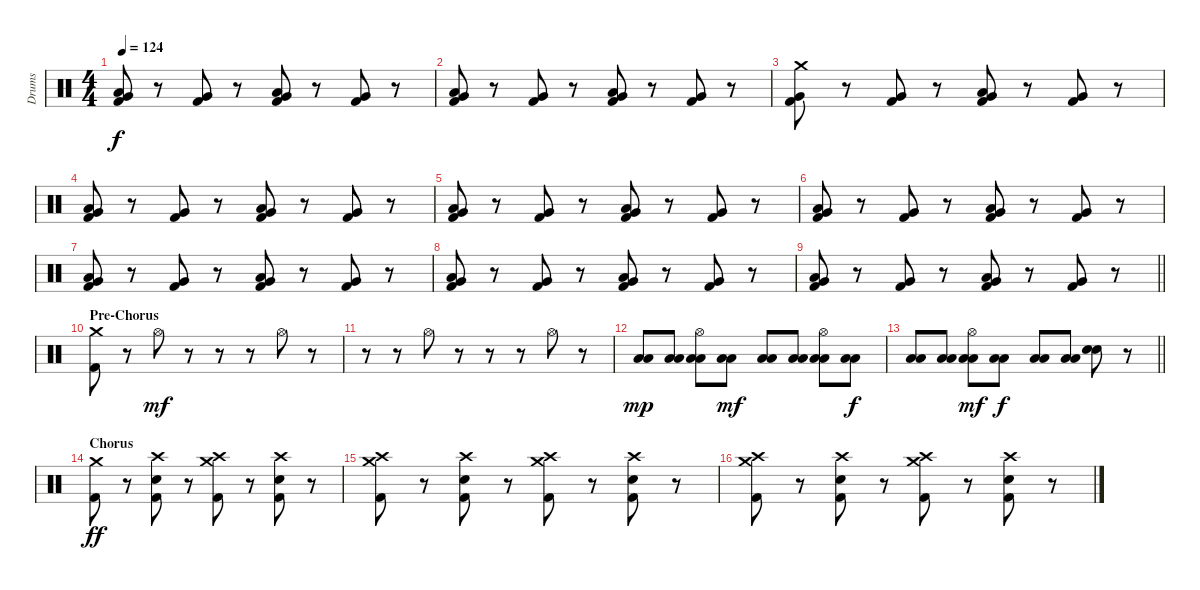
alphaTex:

\track ("Drums" "Drums") {instrument percussion}
\staff {score}
\articulation defaults
\ts (4 4)
\tempo 124
\clef neutral
\ks c
("Very Low Tom (hit)" "Low Floor Tom (hit)" "Kick (hit) 2").8{dy f} r.8 ("Very Low Tom (hit)" "Kick (hit) 2").8 r.8 ("Very Low Tom (hit)" "Low Floor Tom (hit)" "Kick (hit) 2").8 r.8 ("Very Low Tom (hit)" "Kick (hit) 2").8 r.8 |
("Very Low Tom (hit)" "Low Floor Tom (hit)" "Kick (hit) 2").8 r.8 ("Very Low Tom (hit)" "Kick (hit) 2").8 r.8 ("Very Low Tom (hit)" "Low Floor Tom (hit)" "Kick (hit) 2").8 r.8 ("Very Low Tom (hit)" "Kick (hit) 2").8 r.8 |
("Crash medium (hit)" "Very Low Tom (hit)" "Kick (hit) 2").8 r.8 ("Very Low Tom (hit)" "Kick (hit) 2").8 r.8 ("Very Low Tom (hit)" "Low Floor Tom (hit)" "Kick (hit) 2").8 r.8 ("Very Low Tom (hit)" "Kick (hit) 2").8 r.8 |
("Very Low Tom (hit)" "Low Floor Tom (hit)" "Kick (hit) 2").8 r.8 ("Very Low Tom (hit)" "Kick (hit) 2").8 r.8 ("Very Low Tom (hit)" "Low Floor Tom (hit)" "Kick (hit) 2").8 r.8 ("Very Low Tom (hit)" "Kick (hit) 2").8 r.8 |
("Very Low Tom (hit)" "Low Floor Tom (hit)" "Kick (hit) 2").8 r.8 ("Very Low Tom (hit)" "Kick (hit) 2").8 r.8 ("Very Low Tom (hit)" "Low Floor Tom (hit)" "Kick (hit) 2").8 r.8 ("Very Low Tom (hit)" "Kick (hit) 2").8 r.8 |
("Very Low Tom (hit)" "Low Floor Tom (hit)" "Kick (hit) 2").8 r.8 ("Very Low Tom (hit)" "Kick (hit) 2").8 r.8 ("Very Low Tom (hit)" "Low Floor Tom (hit)" "Kick (hit) 2").8 r.8 ("Very Low Tom (hit)" "Kick (hit) 2").8 r.8 |
("Very Low Tom (hit)" "Low Floor Tom (hit)" "Kick (hit) 2").8 r.8 ("Very Low Tom (hit)" "Kick (hit) 2").8 r.8 ("Very Low Tom (hit)" "Low Floor Tom (hit)" "Kick (hit) 2").8 r.8 ("Very Low Tom (hit)" "Kick (hit) 2").8 r.8 |
("Very Low Tom (hit)" "Low Floor Tom (hit)" "Kick (hit) 2").8 r.8 ("Very Low Tom (hit)" "Kick (hit) 2").8 r.8 ("Very Low Tom (hit)" "Low Floor Tom (hit)" "Kick (hit) 2").8 r.8 ("Very Low Tom (hit)" "Kick (hit) 2").8 r.8 |
\barLineRight lightlight
("Very Low Tom (hit)" "Low Floor Tom (hit)" "Kick (hit) 2").8 r.8 ("Very Low Tom (hit)" "Kick (hit) 2").8 r.8 ("Very Low Tom (hit)" "Low Floor Tom (hit)" "Kick (hit) 2").8 r.8 ("Very Low Tom (hit)" "Kick (hit) 2").8 r.8 |
\section ("" "Pre-Chorus")
("Crash medium (hit)" "Kick (hit) 2").8 r.8 "Hi-Hat (open)".8{dy mf} r.8 r.8 r.8 "Hi-Hat (open)".8 r.8 |
r.8 r.8 "Hi-Hat (open)".8 r.8 r.8 r.8 "Hi-Hat (open)".8 r.8 |
("Low Floor Tom (hit)" "Low Floor Tom (hit)").8{dy mp} ("Low Floor Tom (hit)" "Low Floor Tom (hit)").8 ("Hi-Hat (open)" "Low Floor Tom (hit)" "Low Floor Tom (hit)").8 ("Low Floor Tom (hit)" "Low Floor Tom (hit)").8{dy mf} ("Low Floor Tom (hit)" "Low Floor Tom (hit)").8 ("Low Floor Tom (hit)" "Low Floor Tom (hit)").8 ("Hi-Hat (open)" "Low Floor Tom (hit)" "Low Floor Tom (hit)").8 ("Low Floor Tom (hit)" "Low Floor Tom (hit)").8{dy f} |
\barLineRight lightlight
("Low Floor Tom (hit)" "Low Floor Tom (hit)").8 ("Low Floor Tom (hit)" "Low Floor Tom (hit)").8 ("Hi-Hat (open)" "Low Floor Tom (hit)" "Low Floor Tom (hit)").8{dy mf} ("Low Floor Tom (hit)" "Low Floor Tom (hit)").8{dy f} ("Low Floor Tom (hit)" "Low Floor Tom (hit)").8 ("Low Floor Tom (hit)" "Low Floor Tom (hit)").8 ("Electric Snare (hit)" "Electric Snare (hit)").8 r.8 |
\section ("" "Chorus")
("Crash medium (hit)" "Kick (hit) 2").8{dy ff} r.8 ("Crash high (hit)" "Electric Snare (hit)" "Kick (hit) 2").8 r.8 ("Crash medium (hit)" "Crash high (hit)" "Kick (hit) 2").8 r.8 ("Crash high (hit)" "Electric Snare (hit)" "Kick (hit) 2").8 r.8 |
("Crash medium (hit)" "Crash high (hit)" "Kick (hit) 2").8 r.8 ("Crash high (hit)" "Electric Snare (hit)" "Kick (hit) 2").8 r.8 ("Crash medium (hit)" "Crash high (hit)" "Kick (hit) 2").8 r.8 ("Crash high (hit)" "Electric Snare (hit)" "Kick (hit) 2").8 r.8 |
("Crash medium (hit)" "Crash high (hit)" "Kick (hit) 2").8 r.8 ("Crash high (hit)" "Electric Snare (hit)" "Kick (hit) 2").8 r.8 ("Crash medium (hit)" "Crash high (hit)" "Kick (hit) 2").8 r.8 ("Crash high (hit)" "Electric Snare (hit)" "Kick (hit) 2").8 r.8
